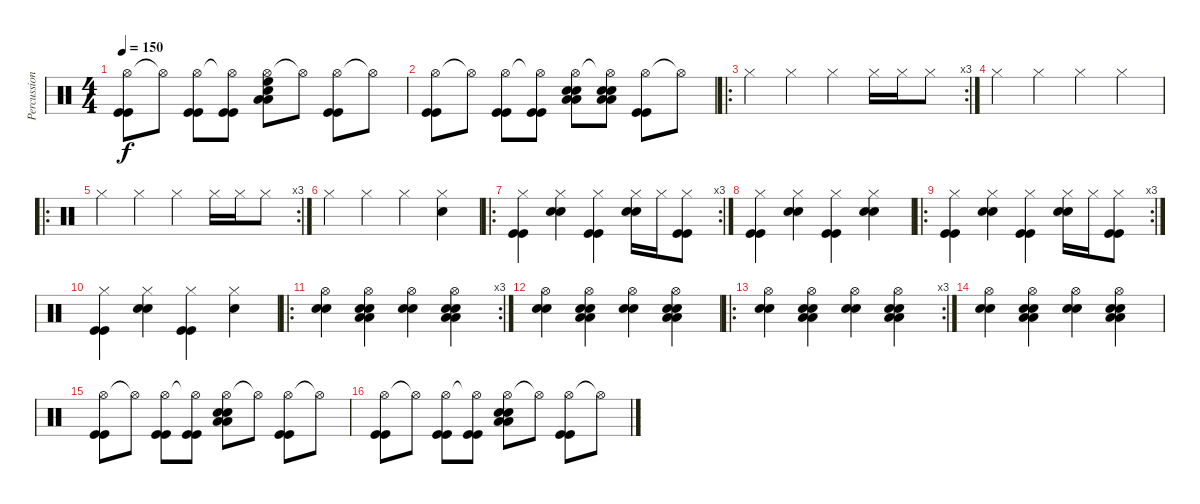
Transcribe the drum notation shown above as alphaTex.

\track ("Percussion" "Percussion") {instrument percussion}
\staff {score}
\articulation defaults
\ts (4 4)
\tempo 150
\clef neutral
\ks c
("Hi-Hat (open)" "Kick (hit)" "Kick (hit)").8{dy f} "Hi-Hat (open)"{t}.8 ("Hi-Hat (open)" "Kick (hit)" "Kick (hit)").8 ("Hi-Hat (open)"{t} "Kick (hit)" "Kick (hit)").8 ("Hi-Hat (open)" "Electric Snare (hit)" "High Floor Tom (hit)" "Low Tom (hit)" "Low Tom (hit)").8 "Hi-Hat (open)"{t}.8 ("Hi-Hat (open)" "Kick (hit)" "Kick (hit)").8 "Hi-Hat (open)"{t}.8 |
("Hi-Hat (open)" "Kick (hit)" "Kick (hit)").8 "Hi-Hat (open)"{t}.8 ("Hi-Hat (open)" "Kick (hit)" "Kick (hit)").8 ("Hi-Hat (open)"{t} "Kick (hit)" "Kick (hit)").8 ("Hi-Hat (open)" "Electric Snare (hit)" "Electric Snare (hit)" "Low Tom (hit)" "Low Tom (hit)").8 ("Hi-Hat (open)"{t} "Electric Snare (hit)" "Electric Snare (hit)" "Low Tom (hit)" "Low Tom (hit)").8 ("Hi-Hat (open)" "Kick (hit)" "Kick (hit)").8 "Hi-Hat (open)"{t}.8 |
\ro
\rc 3 "Hi-Hat (closed)".4 "Hi-Hat (closed)".4 "Hi-Hat (closed)".4 "Hi-Hat (closed)".16 "Hi-Hat (closed)".16 "Hi-Hat (closed)".8
|
"Hi-Hat (closed)".4 "Hi-Hat (closed)".4 "Hi-Hat (closed)".4 "Hi-Hat (closed)".4 |
\ro
\rc 3 "Hi-Hat (closed)".4 "Hi-Hat (closed)".4 "Hi-Hat (closed)".4 "Hi-Hat (closed)".16 "Hi-Hat (closed)".16 "Hi-Hat (closed)".8
|
"Hi-Hat (closed)".4 "Hi-Hat (closed)".4 "Hi-Hat (closed)".4 ("Hi-Hat (closed)" "Electric Snare (hit)").4 |
\ro
\rc 3
("Hi-Hat (closed)" "Kick (hit)" "Kick (hit)").4 ("Hi-Hat (closed)" "Electric Snare (hit)" "Electric Snare (hit)").4 ("Hi-Hat (closed)" "Kick (hit)" "Kick (hit)").4 ("Hi-Hat (closed)" "Electric Snare (hit)" "Electric Snare (hit)").16 "Hi-Hat (closed)".16 ("Hi-Hat (closed)" "Kick (hit)" "Kick (hit)").8 |
("Hi-Hat (closed)" "Kick (hit)" "Kick (hit)").4 ("Hi-Hat (closed)" "Electric Snare (hit)" "Electric Snare (hit)").4 ("Hi-Hat (closed)" "Kick (hit)" "Kick (hit)").4 ("Hi-Hat (closed)" "Electric Snare (hit)" "Electric Snare (hit)").4 |
\ro
\rc 3
("Hi-Hat (closed)" "Kick (hit)" "Kick (hit)").4 ("Hi-Hat (closed)" "Electric Snare (hit)" "Electric Snare (hit)").4 ("Hi-Hat (closed)" "Kick (hit)" "Kick (hit)").4 ("Hi-Hat (closed)" "Electric Snare (hit)" "Electric Snare (hit)").16 "Hi-Hat (closed)".16 ("Hi-Hat (closed)" "Kick (hit)" "Kick (hit)").8 |
("Hi-Hat (closed)" "Kick (hit)" "Kick (hit)").4 ("Hi-Hat (closed)" "Electric Snare (hit)" "Electric Snare (hit)").4 ("Hi-Hat (closed)" "Kick (hit)" "Kick (hit)").4 ("Hi-Hat (closed)" "Electric Snare (hit)").4 |
\ro
\rc 3
("Hi-Hat (open)" "Electric Snare (hit)" "Electric Snare (hit)").4 ("Hi-Hat (open)" "Electric Snare (hit)" "Electric Snare (hit)" "Low Tom (hit)" "Low Tom (hit)").4 ("Hi-Hat (open)" "Electric Snare (hit)" "Electric Snare (hit)").4 ("Hi-Hat (open)" "Electric Snare (hit)" "Electric Snare (hit)" "Low Tom (hit)" "Low Tom (hit)").4 |
("Hi-Hat (open)" "Electric Snare (hit)" "Electric Snare (hit)").4 ("Hi-Hat (open)" "Electric Snare (hit)" "Electric Snare (hit)" "Low Tom (hit)" "Low Tom (hit)").4 ("Hi-Hat (open)" "Electric Snare (hit)" "Electric Snare (hit)").4 ("Hi-Hat (open)" "Electric Snare (hit)" "Electric Snare (hit)" "Low Tom (hit)" "Low Tom (hit)").4 |
\ro
\rc 3
("Hi-Hat (open)" "Electric Snare (hit)" "Electric Snare (hit)").4 ("Hi-Hat (open)" "Electric Snare (hit)" "Electric Snare (hit)" "Low Tom (hit)" "Low Tom (hit)").4 ("Hi-Hat (open)" "Electric Snare (hit)" "Electric Snare (hit)").4 ("Hi-Hat (open)" "Electric Snare (hit)" "Electric Snare (hit)" "Low Tom (hit)" "Low Tom (hit)").4 |
("Hi-Hat (open)" "Electric Snare (hit)" "Electric Snare (hit)").4 ("Hi-Hat (open)" "Electric Snare (hit)" "Electric Snare (hit)" "Low Tom (hit)" "Low Tom (hit)").4 ("Hi-Hat (open)" "Electric Snare (hit)" "Electric Snare (hit)").4 ("Hi-Hat (open)" "Electric Snare (hit)" "Electric Snare (hit)" "Low Tom (hit)" "Low Tom (hit)").4 |
("Hi-Hat (open)" "Kick (hit)" "Kick (hit)").8 "Hi-Hat (open)"{t}.8 ("Hi-Hat (open)" "Kick (hit)" "Kick (hit)").8 ("Hi-Hat (open)"{t} "Kick (hit)" "Kick (hit)").8 ("Hi-Hat (open)" "Electric Snare (hit)" "Electric Snare (hit)" "Low Tom (hit)" "Low Tom (hit)").8 "Hi-Hat (open)"{t}.8 ("Hi-Hat (open)" "Kick (hit)" "Kick (hit)").8 "Hi-Hat (open)"{t}.8 |
("Hi-Hat (open)" "Kick (hit)" "Kick (hit)").8 "Hi-Hat (open)"{t}.8 ("Hi-Hat (open)" "Kick (hit)" "Kick (hit)").8 ("Hi-Hat (open)"{t} "Kick (hit)" "Kick (hit)").8 ("Hi-Hat (open)" "Electric Snare (hit)" "Electric Snare (hit)" "Low Tom (hit)" "Low Tom (hit)").8 "Hi-Hat (open)"{t}.8 ("Hi-Hat (open)" "Kick (hit)" "Kick (hit)").8 "Hi-Hat (open)"{t}.8
